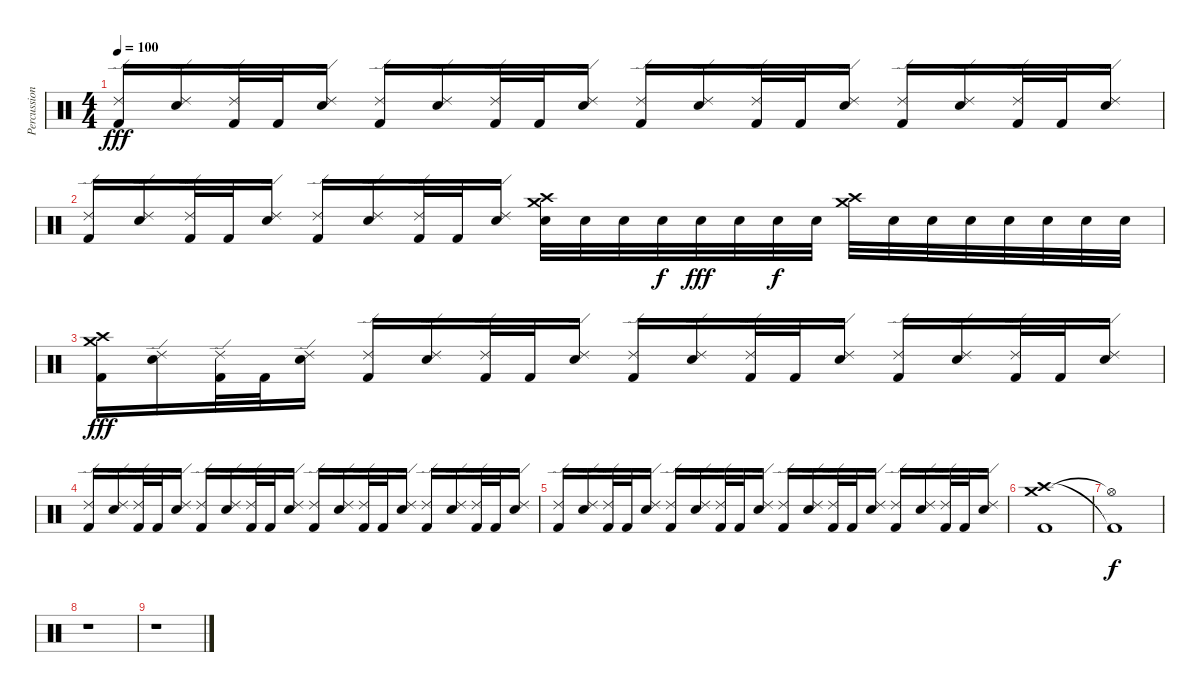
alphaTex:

\track ("Percussion" "Percussion") {instrument percussion}
\staff {score}
\articulation defaults
\ts (4 4)
\tempo 100
\clef neutral
\ks c
("Kick (hit) 2" "Ride (edge) 2").16{dy fff} ("Electric Snare (hit)" "Ride (edge) 2").16 ("Kick (hit) 2" "Ride (edge) 2").32 "Kick (hit) 2".32 ("Electric Snare (hit)" "Ride (edge) 2").16 ("Kick (hit) 2" "Ride (edge) 2").16 ("Electric Snare (hit)" "Ride (edge) 2").16 ("Kick (hit) 2" "Ride (edge) 2").32 "Kick (hit) 2".32 ("Electric Snare (hit)" "Ride (edge) 2").16 ("Kick (hit) 2" "Ride (edge) 2").16 ("Electric Snare (hit)" "Ride (edge) 2").16 ("Kick (hit) 2" "Ride (edge) 2").32 "Kick (hit) 2".32 ("Electric Snare (hit)" "Ride (edge) 2").16 ("Kick (hit) 2" "Ride (edge) 2").16 ("Electric Snare (hit)" "Ride (edge) 2").16 ("Kick (hit) 2" "Ride (edge) 2").32 "Kick (hit) 2".32 ("Electric Snare (hit)" "Ride (edge) 2").16 |
("Kick (hit) 2" "Ride (edge) 2").16 ("Electric Snare (hit)" "Ride (edge) 2").16 ("Kick (hit) 2" "Ride (edge) 2").32 "Kick (hit) 2".32 ("Electric Snare (hit)" "Ride (edge) 2").16 ("Kick (hit) 2" "Ride (edge) 2").16 ("Electric Snare (hit)" "Ride (edge) 2").16 ("Kick (hit) 2" "Ride (edge) 2").32 "Kick (hit) 2".32 ("Electric Snare (hit)" "Ride (edge) 2").16 ("Electric Snare (hit)" "Crash medium (hit)" "Crash high (hit)").32 "Electric Snare (hit)".32 "Electric Snare (hit)".32 "Electric Snare (hit)".32{dy f} "Electric Snare (hit)".32{dy fff} "Electric Snare (hit)".32 "Electric Snare (hit)".32{dy f} "Electric Snare (hit)".32 ("Crash medium (hit)" "Crash high (hit)").32 "Electric Snare (hit)".32 "Electric Snare (hit)".32 "Electric Snare (hit)".32 "Electric Snare (hit)".32 "Electric Snare (hit)".32 "Electric Snare (hit)".32 "Electric Snare (hit)".32 |
("Kick (hit) 2" "Crash high (hit)" "Crash medium (hit)").16{dy fff} ("Electric Snare (hit)" "Ride (edge) 2").16 ("Kick (hit) 2" "Ride (edge) 2").32 "Kick (hit) 2".32 ("Electric Snare (hit)" "Ride (edge) 2").16 ("Kick (hit) 2" "Ride (edge) 2").16 ("Electric Snare (hit)" "Ride (edge) 2").16 ("Kick (hit) 2" "Ride (edge) 2").32 "Kick (hit) 2".32 ("Electric Snare (hit)" "Ride (edge) 2").16 ("Kick (hit) 2" "Ride (edge) 2").16 ("Electric Snare (hit)" "Ride (edge) 2").16 ("Kick (hit) 2" "Ride (edge) 2").32 "Kick (hit) 2".32 ("Electric Snare (hit)" "Ride (edge) 2").16 ("Kick (hit) 2" "Ride (edge) 2").16 ("Electric Snare (hit)" "Ride (edge) 2").16 ("Kick (hit) 2" "Ride (edge) 2").32 "Kick (hit) 2".32 ("Electric Snare (hit)" "Ride (edge) 2").16 |
("Kick (hit) 2" "Ride (edge) 2").16 ("Electric Snare (hit)" "Ride (edge) 2").16 ("Kick (hit) 2" "Ride (edge) 2").32 "Kick (hit) 2".32 ("Electric Snare (hit)" "Ride (edge) 2").16 ("Kick (hit) 2" "Ride (edge) 2").16 ("Electric Snare (hit)" "Ride (edge) 2").16 ("Kick (hit) 2" "Ride (edge) 2").32 "Kick (hit) 2".32 ("Electric Snare (hit)" "Ride (edge) 2").16 ("Kick (hit) 2" "Ride (edge) 2").16 ("Electric Snare (hit)" "Ride (edge) 2").16 ("Kick (hit) 2" "Ride (edge) 2").32 "Kick (hit) 2".32 ("Electric Snare (hit)" "Ride (edge) 2").16 ("Kick (hit) 2" "Ride (edge) 2").16 ("Electric Snare (hit)" "Ride (edge) 2").16 ("Kick (hit) 2" "Ride (edge) 2").32 "Kick (hit) 2".32 ("Electric Snare (hit)" "Ride (edge) 2").16 |
("Kick (hit) 2" "Ride (edge) 2").16 ("Electric Snare (hit)" "Ride (edge) 2").16 ("Kick (hit) 2" "Ride (edge) 2").32 "Kick (hit) 2".32 ("Electric Snare (hit)" "Ride (edge) 2").16 ("Kick (hit) 2" "Ride (edge) 2").16 ("Electric Snare (hit)" "Ride (edge) 2").16 ("Kick (hit) 2" "Ride (edge) 2").32 "Kick (hit) 2".32 ("Electric Snare (hit)" "Ride (edge) 2").16 ("Kick (hit) 2" "Ride (edge) 2").16 ("Electric Snare (hit)" "Ride (edge) 2").16 ("Kick (hit) 2" "Ride (edge) 2").32 "Kick (hit) 2".32 ("Electric Snare (hit)" "Ride (edge) 2").16 ("Kick (hit) 2" "Ride (edge) 2").16 ("Electric Snare (hit)" "Ride (edge) 2").16 ("Kick (hit) 2" "Ride (edge) 2").32 "Kick (hit) 2".32 ("Electric Snare (hit)" "Ride (edge) 2").16 |
("Crash high (hit)" "Crash medium (hit)" "Kick (hit) 2").1 |
("Kick (hit) 2"{t} "Hi-Hat (open)"{t}).1{dy f} |
r.1 |
r.1
